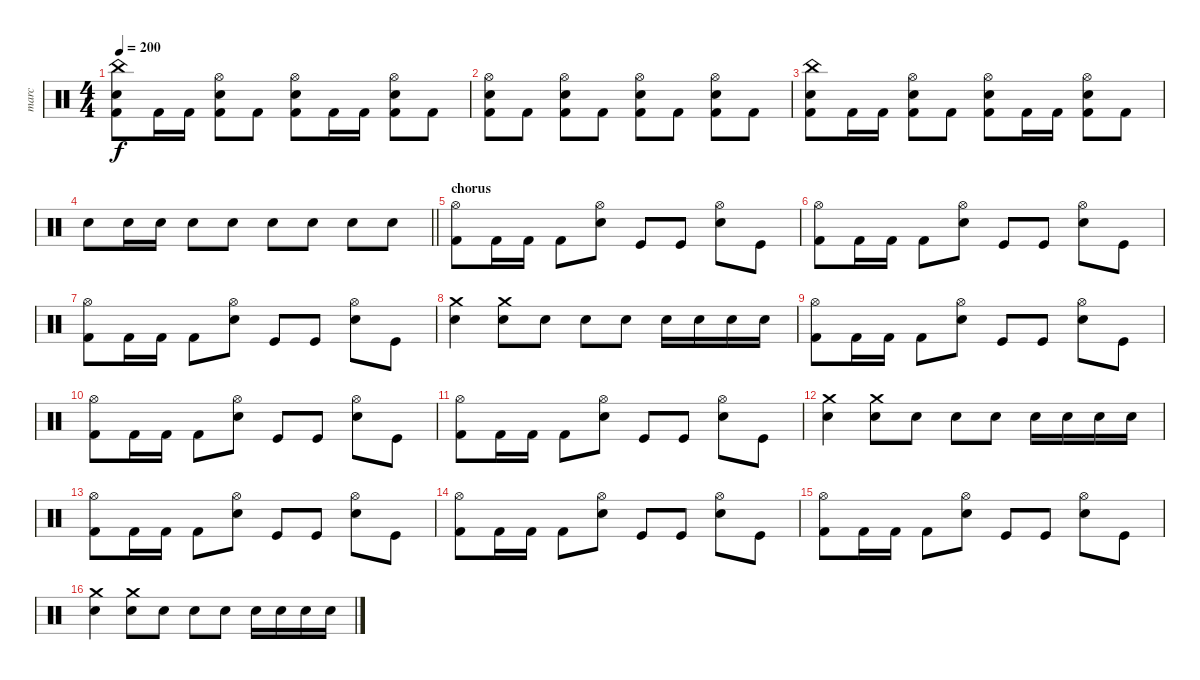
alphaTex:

\track ("marc" "marc") {instrument percussion}
\staff {score}
\articulation defaults
\ts (4 4)
\tempo 200
\clef neutral
\ks c
("China (hit)" "Snare (hit) 2" "Kick (hit) 2").8{dy f} "Kick (hit) 2".16 "Kick (hit) 2".16 ("Hi-Hat (open)" "Snare (hit) 2" "Kick (hit) 2").8 "Kick (hit) 2".8 ("Hi-Hat (open)" "Snare (hit) 2" "Kick (hit) 2").8 "Kick (hit) 2".16 "Kick (hit) 2".16 ("Hi-Hat (open)" "Snare (hit) 2" "Kick (hit) 2").8 "Kick (hit) 2".8 |
("Hi-Hat (open)" "Snare (hit) 2" "Kick (hit) 2").8 "Kick (hit) 2".8 ("Hi-Hat (open)" "Snare (hit) 2" "Kick (hit) 2").8 "Kick (hit) 2".8 ("Hi-Hat (open)" "Snare (hit) 2" "Kick (hit) 2").8 "Kick (hit) 2".8 ("Hi-Hat (open)" "Snare (hit) 2" "Kick (hit) 2").8 "Kick (hit) 2".8 |
("China (hit)" "Snare (hit) 2" "Kick (hit) 2").8 "Kick (hit) 2".16 "Kick (hit) 2".16 ("Hi-Hat (open)" "Snare (hit) 2" "Kick (hit) 2").8 "Kick (hit) 2".8 ("Hi-Hat (open)" "Snare (hit) 2" "Kick (hit) 2").8 "Kick (hit) 2".16 "Kick (hit) 2".16 ("Hi-Hat (open)" "Snare (hit) 2" "Kick (hit) 2").8 "Kick (hit) 2".8 |
\barLineRight lightlight "Snare (hit) 2".8 "Snare (hit) 2".16 "Snare (hit) 2".16 "Snare (hit) 2".8 "Snare (hit) 2".8 "Snare (hit) 2".8 "Snare (hit) 2".8 "Snare (hit) 2".8 "Snare (hit) 2".8
|
\section ("" "chorus")
("Hi-Hat (open)" "Kick (hit) 2").8 "Kick (hit) 2".16 "Kick (hit) 2".16 "Kick (hit) 2".8 ("Hi-Hat (open)" "Snare (hit) 2").8 "Kick (hit)".8 "Kick (hit)".8 ("Hi-Hat (open)" "Snare (hit) 2").8 "Kick (hit)".8 |
("Hi-Hat (open)" "Kick (hit) 2").8 "Kick (hit) 2".16 "Kick (hit) 2".16 "Kick (hit) 2".8 ("Hi-Hat (open)" "Snare (hit) 2").8 "Kick (hit)".8 "Kick (hit)".8 ("Hi-Hat (open)" "Snare (hit) 2").8 "Kick (hit)".8 |
("Hi-Hat (open)" "Kick (hit) 2").8 "Kick (hit) 2".16 "Kick (hit) 2".16 "Kick (hit) 2".8 ("Hi-Hat (open)" "Snare (hit) 2").8 "Kick (hit)".8 "Kick (hit)".8 ("Hi-Hat (open)" "Snare (hit) 2").8 "Kick (hit)".8 |
("Crash medium (hit)" "Snare (hit) 2").4 ("Crash medium (hit)" "Snare (hit) 2").8 "Snare (hit) 2".8 "Snare (hit) 2".8 "Snare (hit) 2".8 "Snare (hit) 2".16 "Snare (hit) 2".16 "Snare (hit) 2".16 "Snare (hit) 2".16 |
("Hi-Hat (open)" "Kick (hit) 2").8 "Kick (hit) 2".16 "Kick (hit) 2".16 "Kick (hit) 2".8 ("Hi-Hat (open)" "Snare (hit) 2").8 "Kick (hit)".8 "Kick (hit)".8 ("Hi-Hat (open)" "Snare (hit) 2").8 "Kick (hit)".8 |
("Hi-Hat (open)" "Kick (hit) 2").8 "Kick (hit) 2".16 "Kick (hit) 2".16 "Kick (hit) 2".8 ("Hi-Hat (open)" "Snare (hit) 2").8 "Kick (hit)".8 "Kick (hit)".8 ("Hi-Hat (open)" "Snare (hit) 2").8 "Kick (hit)".8 |
("Hi-Hat (open)" "Kick (hit) 2").8 "Kick (hit) 2".16 "Kick (hit) 2".16 "Kick (hit) 2".8 ("Hi-Hat (open)" "Snare (hit) 2").8 "Kick (hit)".8 "Kick (hit)".8 ("Hi-Hat (open)" "Snare (hit) 2").8 "Kick (hit)".8 |
("Crash medium (hit)" "Snare (hit) 2").4 ("Crash medium (hit)" "Snare (hit) 2").8 "Snare (hit) 2".8 "Snare (hit) 2".8 "Snare (hit) 2".8 "Snare (hit) 2".16 "Snare (hit) 2".16 "Snare (hit) 2".16 "Snare (hit) 2".16 |
("Hi-Hat (open)" "Kick (hit) 2").8 "Kick (hit) 2".16 "Kick (hit) 2".16 "Kick (hit) 2".8 ("Hi-Hat (open)" "Snare (hit) 2").8 "Kick (hit)".8 "Kick (hit)".8 ("Hi-Hat (open)" "Snare (hit) 2").8 "Kick (hit)".8 |
("Hi-Hat (open)" "Kick (hit) 2").8 "Kick (hit) 2".16 "Kick (hit) 2".16 "Kick (hit) 2".8 ("Hi-Hat (open)" "Snare (hit) 2").8 "Kick (hit)".8 "Kick (hit)".8 ("Hi-Hat (open)" "Snare (hit) 2").8 "Kick (hit)".8 |
("Hi-Hat (open)" "Kick (hit) 2").8 "Kick (hit) 2".16 "Kick (hit) 2".16 "Kick (hit) 2".8 ("Hi-Hat (open)" "Snare (hit) 2").8 "Kick (hit)".8 "Kick (hit)".8 ("Hi-Hat (open)" "Snare (hit) 2").8 "Kick (hit)".8 |
("Crash medium (hit)" "Snare (hit) 2").4 ("Crash medium (hit)" "Snare (hit) 2").8 "Snare (hit) 2".8 "Snare (hit) 2".8 "Snare (hit) 2".8 "Snare (hit) 2".16 "Snare (hit) 2".16 "Snare (hit) 2".16 "Snare (hit) 2".16
